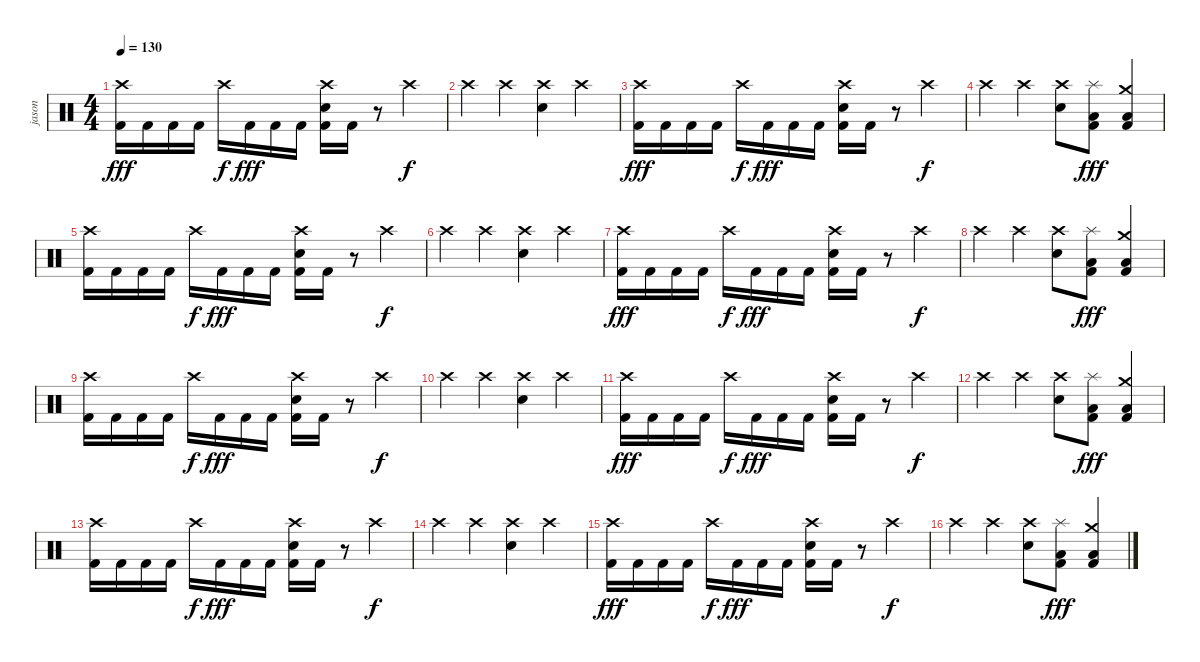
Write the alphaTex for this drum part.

\track ("jason" "jason") {solo instrument percussion}
\staff {score}
\articulation defaults
\ts (4 4)
\tempo 130
\clef neutral
\ks c
("Crash high (hit)" "Kick (hit) 2").16{dy fff} "Kick (hit) 2".16 "Kick (hit) 2".16 "Kick (hit) 2".16 "Crash high (hit)".16{dy f} "Kick (hit) 2".16{dy fff} "Kick (hit) 2".16 "Kick (hit) 2".16 ("Crash high (hit)" "Snare (hit) 2" "Kick (hit) 2").16 "Kick (hit) 2".16 r.8 "Crash high (hit)".4{dy f} |
"Crash high (hit)".4 "Crash high (hit)".4 ("Crash high (hit)" "Snare (hit) 2").4 "Crash high (hit)".4 |
("Crash high (hit)" "Kick (hit) 2").16{dy fff} "Kick (hit) 2".16 "Kick (hit) 2".16 "Kick (hit) 2".16 "Crash high (hit)".16{dy f} "Kick (hit) 2".16{dy fff} "Kick (hit) 2".16 "Kick (hit) 2".16 ("Crash high (hit)" "Snare (hit) 2" "Kick (hit) 2").16 "Kick (hit) 2".16 r.8 "Crash high (hit)".4{dy f} |
"Crash high (hit)".4 "Crash high (hit)".4 ("Crash high (hit)" "Snare (hit) 2").8 ("Splash (hit)" "Low Tom (hit)" "Kick (hit) 2").8{dy fff} ("Crash medium (hit)" "Low Floor Tom (hit)" "Kick (hit) 2").4 |
("Crash high (hit)" "Kick (hit) 2").16 "Kick (hit) 2".16 "Kick (hit) 2".16 "Kick (hit) 2".16 "Crash high (hit)".16{dy f} "Kick (hit) 2".16{dy fff} "Kick (hit) 2".16 "Kick (hit) 2".16 ("Crash high (hit)" "Snare (hit) 2" "Kick (hit) 2").16 "Kick (hit) 2".16 r.8 "Crash high (hit)".4{dy f} |
"Crash high (hit)".4 "Crash high (hit)".4 ("Crash high (hit)" "Snare (hit) 2").4 "Crash high (hit)".4 |
("Crash high (hit)" "Kick (hit) 2").16{dy fff} "Kick (hit) 2".16 "Kick (hit) 2".16 "Kick (hit) 2".16 "Crash high (hit)".16{dy f} "Kick (hit) 2".16{dy fff} "Kick (hit) 2".16 "Kick (hit) 2".16 ("Crash high (hit)" "Snare (hit) 2" "Kick (hit) 2").16 "Kick (hit) 2".16 r.8 "Crash high (hit)".4{dy f} |
"Crash high (hit)".4 "Crash high (hit)".4 ("Crash high (hit)" "Snare (hit) 2").8 ("Splash (hit)" "Low Tom (hit)" "Kick (hit) 2").8{dy fff} ("Crash medium (hit)" "Low Floor Tom (hit)" "Kick (hit) 2").4 |
("Crash high (hit)" "Kick (hit) 2").16 "Kick (hit) 2".16 "Kick (hit) 2".16 "Kick (hit) 2".16 "Crash high (hit)".16{dy f} "Kick (hit) 2".16{dy fff} "Kick (hit) 2".16 "Kick (hit) 2".16 ("Crash high (hit)" "Snare (hit) 2" "Kick (hit) 2").16 "Kick (hit) 2".16 r.8 "Crash high (hit)".4{dy f} |
"Crash high (hit)".4 "Crash high (hit)".4 ("Crash high (hit)" "Snare (hit) 2").4 "Crash high (hit)".4 |
("Crash high (hit)" "Kick (hit) 2").16{dy fff} "Kick (hit) 2".16 "Kick (hit) 2".16 "Kick (hit) 2".16 "Crash high (hit)".16{dy f} "Kick (hit) 2".16{dy fff} "Kick (hit) 2".16 "Kick (hit) 2".16 ("Crash high (hit)" "Snare (hit) 2" "Kick (hit) 2").16 "Kick (hit) 2".16 r.8 "Crash high (hit)".4{dy f} |
"Crash high (hit)".4 "Crash high (hit)".4 ("Crash high (hit)" "Snare (hit) 2").8 ("Splash (hit)" "Low Tom (hit)" "Kick (hit) 2").8{dy fff} ("Crash medium (hit)" "Low Floor Tom (hit)" "Kick (hit) 2").4 |
("Crash high (hit)" "Kick (hit) 2").16 "Kick (hit) 2".16 "Kick (hit) 2".16 "Kick (hit) 2".16 "Crash high (hit)".16{dy f} "Kick (hit) 2".16{dy fff} "Kick (hit) 2".16 "Kick (hit) 2".16 ("Crash high (hit)" "Snare (hit) 2" "Kick (hit) 2").16 "Kick (hit) 2".16 r.8 "Crash high (hit)".4{dy f} |
"Crash high (hit)".4 "Crash high (hit)".4 ("Crash high (hit)" "Snare (hit) 2").4 "Crash high (hit)".4 |
("Crash high (hit)" "Kick (hit) 2").16{dy fff} "Kick (hit) 2".16 "Kick (hit) 2".16 "Kick (hit) 2".16 "Crash high (hit)".16{dy f} "Kick (hit) 2".16{dy fff} "Kick (hit) 2".16 "Kick (hit) 2".16 ("Crash high (hit)" "Snare (hit) 2" "Kick (hit) 2").16 "Kick (hit) 2".16 r.8 "Crash high (hit)".4{dy f} |
"Crash high (hit)".4 "Crash high (hit)".4 ("Crash high (hit)" "Snare (hit) 2").8 ("Splash (hit)" "Low Tom (hit)" "Kick (hit) 2").8{dy fff} ("Crash medium (hit)" "Low Floor Tom (hit)" "Kick (hit) 2").4
